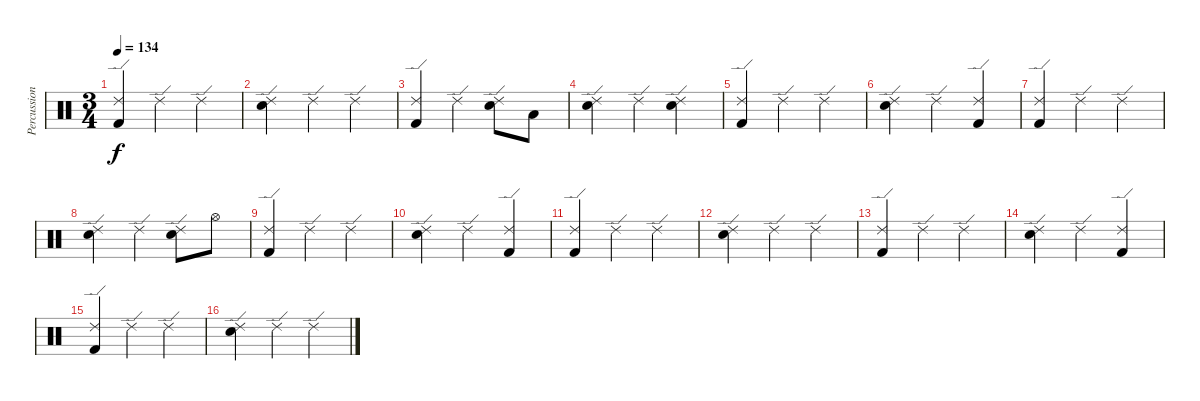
\track ("Percussion" "Percussion") {instrument percussion}
\staff {score}
\articulation defaults
\ts (3 4)
\tempo 134
\clef neutral
\ks c
("Kick (hit) 2" "Ride (edge) 2").4{dy f} "Ride (edge) 2".4 "Ride (edge) 2".4 |
("Snare (hit) 2" "Ride (edge) 2").4 "Ride (edge) 2".4 "Ride (edge) 2".4 |
("Kick (hit) 2" "Ride (edge) 2").4 "Ride (edge) 2".4 ("Snare (hit) 2" "Ride (edge) 2").8 "Low Tom (hit)".8 |
("Snare (hit) 2" "Ride (edge) 2").4 "Ride (edge) 2".4 ("Snare (hit) 2" "Ride (edge) 2").4 |
("Kick (hit) 2" "Ride (edge) 2").4 "Ride (edge) 2".4 "Ride (edge) 2".4 |
("Snare (hit) 2" "Ride (edge) 2").4 "Ride (edge) 2".4 ("Kick (hit) 2" "Ride (edge) 2").4 |
("Kick (hit) 2" "Ride (edge) 2").4 "Ride (edge) 2".4 "Ride (edge) 2".4 |
("Snare (hit) 2" "Ride (edge) 2").4 "Ride (edge) 2".4 ("Snare (hit) 2" "Ride (edge) 2").8 "Hi-Hat (open)".8 |
("Kick (hit) 2" "Ride (edge) 2").4 "Ride (edge) 2".4 "Ride (edge) 2".4 |
("Snare (hit) 2" "Ride (edge) 2").4 "Ride (edge) 2".4 ("Kick (hit) 2" "Ride (edge) 2").4 |
("Kick (hit) 2" "Ride (edge) 2").4 "Ride (edge) 2".4 "Ride (edge) 2".4 |
("Snare (hit) 2" "Ride (edge) 2").4 "Ride (edge) 2".4 "Ride (edge) 2".4 |
("Kick (hit) 2" "Ride (edge) 2").4 "Ride (edge) 2".4 "Ride (edge) 2".4 |
("Snare (hit) 2" "Ride (edge) 2").4 "Ride (edge) 2".4 ("Kick (hit) 2" "Ride (edge) 2").4 |
("Kick (hit) 2" "Ride (edge) 2").4 "Ride (edge) 2".4 "Ride (edge) 2".4 |
("Snare (hit) 2" "Ride (edge) 2").4 "Ride (edge) 2".4 "Ride (edge) 2".4
